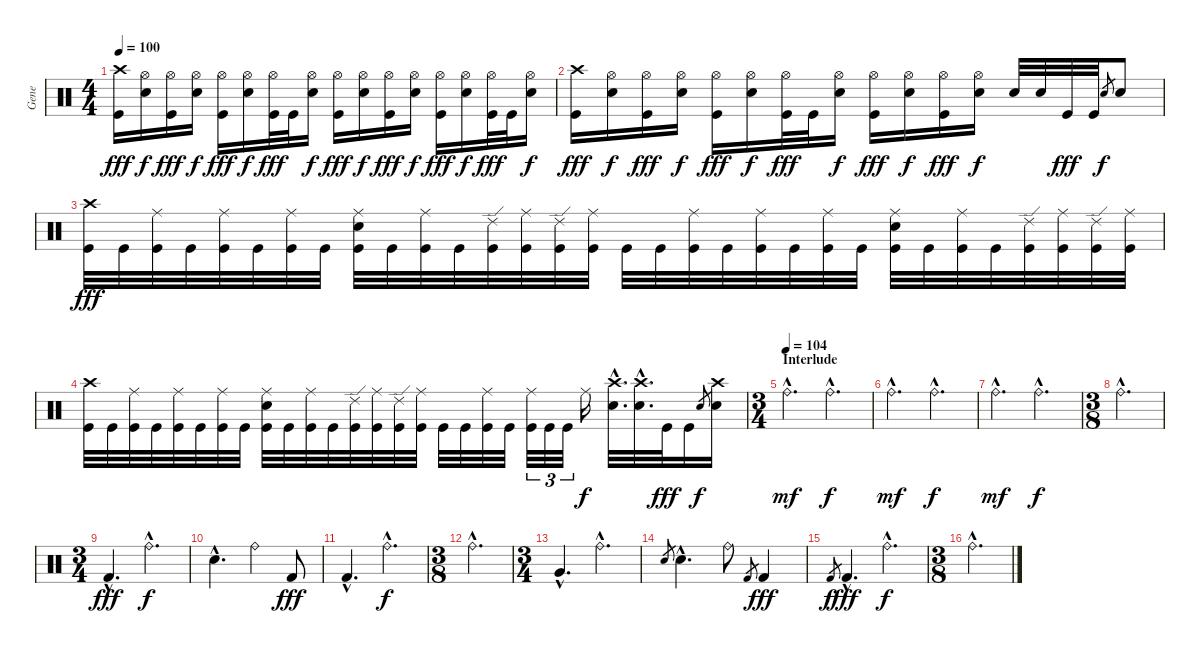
\track ("Gene" "Gene") {instrument percussion}
\staff {score}
\articulation defaults
\ts (4 4)
\tempo 100
\clef neutral
\ks c
("Crash high (hit)" "Kick (hit)").16{dy fff} ("Hi-Hat (open)" "Snare (hit) 2").16{dy f} ("Hi-Hat (open)" "Kick (hit)").16{dy fff} ("Hi-Hat (open)" "Snare (hit) 2").16{dy f} ("Hi-Hat (open)" "Kick (hit)").16{dy fff} ("Hi-Hat (open)" "Snare (hit) 2").16{dy f} ("Hi-Hat (open)" "Kick (hit)").32{dy fff} "Kick (hit)".32 ("Hi-Hat (open)" "Snare (hit) 2").16{dy f} ("Hi-Hat (open)" "Kick (hit)").16{dy fff} ("Hi-Hat (open)" "Snare (hit) 2").16{dy f} ("Hi-Hat (open)" "Kick (hit)").16{dy fff} ("Hi-Hat (open)" "Snare (hit) 2").16{dy f} ("Hi-Hat (open)" "Kick (hit)").16{dy fff} ("Hi-Hat (open)" "Snare (hit) 2").16{dy f} ("Hi-Hat (open)" "Kick (hit)").32{dy fff} "Kick (hit)".32 ("Hi-Hat (open)" "Snare (hit) 2").16{dy f} |
("Crash high (hit)" "Kick (hit)").16{dy fff} ("Hi-Hat (open)" "Snare (hit) 2").16{dy f} ("Hi-Hat (open)" "Kick (hit)").16{dy fff} ("Hi-Hat (open)" "Snare (hit) 2").16{dy f} ("Hi-Hat (open)" "Kick (hit)").16{dy fff} ("Hi-Hat (open)" "Snare (hit) 2").16{dy f} ("Hi-Hat (open)" "Kick (hit)").32{dy fff} "Kick (hit)".32 ("Hi-Hat (open)" "Snare (hit) 2").16{dy f} ("Hi-Hat (open)" "Kick (hit)").16{dy fff} ("Hi-Hat (open)" "Snare (hit) 2").16{dy f} ("Hi-Hat (open)" "Kick (hit)").16{dy fff} ("Hi-Hat (open)" "Snare (hit) 2").16{dy f} "Snare (hit) 2".32 "Snare (hit) 2".32 "Kick (hit)".32{dy fff} "Kick (hit)".32 "Snare (hit) 2".8{gr dy f} "Snare (hit) 2".8 |
("Crash high (hit)" "Kick (hit)").32{dy fff} "Kick (hit)".32 ("Ride (middle)" "Kick (hit)").32 "Kick (hit)".32 ("Ride (middle)" "Kick (hit)").32 "Kick (hit)".32 ("Ride (middle)" "Kick (hit)").32 "Kick (hit)".32 ("Ride (middle)" "Snare (hit) 2" "Kick (hit)").32 "Kick (hit)".32 ("Ride (middle)" "Kick (hit)").32 "Kick (hit)".32 ("Ride (edge) 2" "Kick (hit)").32 ("Ride (middle)" "Kick (hit)").32 ("Ride (edge) 2" "Kick (hit)").32 ("Ride (middle)" "Kick (hit)").32 "Kick (hit)".32 "Kick (hit)".32 ("Ride (middle)" "Kick (hit)").32 "Kick (hit)".32 ("Ride (middle)" "Kick (hit)").32 "Kick (hit)".32 ("Ride (middle)" "Kick (hit)").32 "Kick (hit)".32 ("Ride (middle)" "Snare (hit) 2" "Kick (hit)").32 "Kick (hit)".32 ("Ride (middle)" "Kick (hit)").32 "Kick (hit)".32 ("Ride (edge) 2" "Kick (hit)").32 ("Ride (middle)" "Kick (hit)").32 ("Ride (edge) 2" "Kick (hit)").32 ("Ride (middle)" "Kick (hit)").32 |
("Crash high (hit)" "Kick (hit)").32 "Kick (hit)".32 ("Ride (middle)" "Kick (hit)").32 "Kick (hit)".32 ("Ride (middle)" "Kick (hit)").32 "Kick (hit)".32 ("Ride (middle)" "Kick (hit)").32 "Kick (hit)".32 ("Ride (middle)" "Snare (hit) 2" "Kick (hit)").32 "Kick (hit)".32 ("Ride (middle)" "Kick (hit)").32 "Kick (hit)".32 ("Ride (edge) 2" "Kick (hit)").32 ("Ride (middle)" "Kick (hit)").32 ("Ride (edge) 2" "Kick (hit)").32 ("Ride (middle)" "Kick (hit)").32 "Kick (hit)".32 "Kick (hit)".32 ("Ride (middle)" "Kick (hit)").32 "Kick (hit)".32 ("Ride (middle)" "Kick (hit)").32{tu (3 2)} "Kick (hit)".32{tu (3 2)} "Kick (hit)".32{tu (3 2)} "Ride (middle)".16{dy f} ("Crash high (hit)"{hac} "Snare (hit) 2"{hac}).32{d} ("Crash high (hit)"{hac} "Snare (hit) 2"{hac}).32{d} "Kick (hit)".32{dy fff} "Kick (hit)".16 "Snare (hit) 2".8{gr dy f} ("Crash high (hit)" "Snare (hit) 2").16 |
\ts (3 4)
\section ("" "Interlude")
\tempo (104)
"Ride (bell)"{hac}.4{d dy mf} "Ride (bell)"{hac}.4{d dy f} |
"Ride (bell)"{hac}.4{d dy mf} "Ride (bell)"{hac}.4{d dy f} |
"Ride (bell)"{hac}.4{d dy mf} "Ride (bell)"{hac}.4{d dy f} |
\ts (3 8)
"Ride (bell)"{hac}.4{d} |
\ts (3 4)
"Kick (hit) 2"{hac}.4{d dy fff} "Ride (bell)"{hac}.4{d dy f} |
"Snare (hit) 2"{hac}.4{d} "Ride (bell)".4 "Kick (hit) 2".8{dy fff} |
"Kick (hit) 2"{hac}.4{d} "Ride (bell)"{hac}.4{d dy f} |
\ts (3 8)
"Ride (bell)"{hac}.4{d} |
\ts (3 4)
"Very Low Tom (hit)"{hac}.4{d} "Ride (bell)"{hac}.4{d} |
"Snare (hit) 2".8{gr} "Snare (hit) 2"{hac}.4{d} "Ride (bell)".8 "Kick (hit) 2".8{gr} "Kick (hit) 2".4{dy fff} |
"Kick (hit) 2".8{gr dy f} "Kick (hit) 2"{hac}.4{d dy fff} "Ride (bell)"{hac}.4{d dy f} |
\ts (3 8)
"Ride (bell)"{hac}.4{d}
